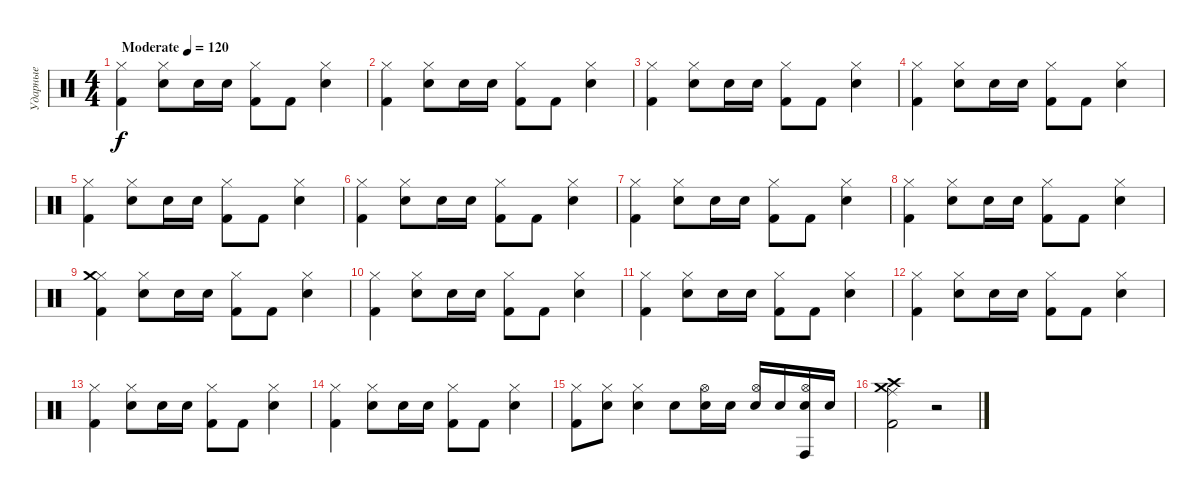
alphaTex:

\track ("Ударные" "Ударные") {instrument percussion}
\staff {score}
\articulation defaults
\ts (4 4)
\tempo (120 "Moderate")
\clef neutral
\ks c
("Kick (hit) 2" "Hi-Hat (closed)").4{dy f} ("Snare (hit) 2" "Hi-Hat (closed)").8 "Snare (hit) 2".16 "Snare (hit) 2".16 ("Kick (hit) 2" "Hi-Hat (closed)").8 "Kick (hit) 2".8 ("Snare (hit) 2" "Hi-Hat (closed)").4 |
("Kick (hit) 2" "Hi-Hat (closed)").4 ("Snare (hit) 2" "Hi-Hat (closed)").8 "Snare (hit) 2".16 "Snare (hit) 2".16 ("Kick (hit) 2" "Hi-Hat (closed)").8 "Kick (hit) 2".8 ("Snare (hit) 2" "Hi-Hat (closed)").4 |
("Kick (hit) 2" "Hi-Hat (closed)").4 ("Snare (hit) 2" "Hi-Hat (closed)").8 "Snare (hit) 2".16 "Snare (hit) 2".16 ("Kick (hit) 2" "Hi-Hat (closed)").8 "Kick (hit) 2".8 ("Snare (hit) 2" "Hi-Hat (closed)").4 |
("Kick (hit) 2" "Hi-Hat (closed)").4 ("Snare (hit) 2" "Hi-Hat (closed)").8 "Snare (hit) 2".16 "Snare (hit) 2".16 ("Kick (hit) 2" "Hi-Hat (closed)").8 "Kick (hit) 2".8 ("Snare (hit) 2" "Hi-Hat (closed)").4 |
("Kick (hit) 2" "Hi-Hat (closed)").4 ("Snare (hit) 2" "Hi-Hat (closed)").8 "Snare (hit) 2".16 "Snare (hit) 2".16 ("Kick (hit) 2" "Hi-Hat (closed)").8 "Kick (hit) 2".8 ("Snare (hit) 2" "Hi-Hat (closed)").4 |
("Kick (hit) 2" "Hi-Hat (closed)").4 ("Snare (hit) 2" "Hi-Hat (closed)").8 "Snare (hit) 2".16 "Snare (hit) 2".16 ("Kick (hit) 2" "Hi-Hat (closed)").8 "Kick (hit) 2".8 ("Snare (hit) 2" "Hi-Hat (closed)").4 |
("Kick (hit) 2" "Hi-Hat (closed)").4 ("Snare (hit) 2" "Hi-Hat (closed)").8 "Snare (hit) 2".16 "Snare (hit) 2".16 ("Kick (hit) 2" "Hi-Hat (closed)").8 "Kick (hit) 2".8 ("Snare (hit) 2" "Hi-Hat (closed)").4 |
("Kick (hit) 2" "Hi-Hat (closed)").4 ("Snare (hit) 2" "Hi-Hat (closed)").8 "Snare (hit) 2".16 "Snare (hit) 2".16 ("Kick (hit) 2" "Hi-Hat (closed)").8 "Kick (hit) 2".8 ("Snare (hit) 2" "Hi-Hat (closed)").4 |
("Kick (hit) 2" "Hi-Hat (closed)" "Crash medium (hit)").4 ("Snare (hit) 2" "Hi-Hat (closed)").8 "Snare (hit) 2".16 "Snare (hit) 2".16 ("Kick (hit) 2" "Hi-Hat (closed)").8 "Kick (hit) 2".8 ("Snare (hit) 2" "Hi-Hat (closed)").4 |
("Kick (hit) 2" "Hi-Hat (closed)").4 ("Snare (hit) 2" "Hi-Hat (closed)").8 "Snare (hit) 2".16 "Snare (hit) 2".16 ("Kick (hit) 2" "Hi-Hat (closed)").8 "Kick (hit) 2".8 ("Snare (hit) 2" "Hi-Hat (closed)").4 |
("Kick (hit) 2" "Hi-Hat (closed)").4 ("Snare (hit) 2" "Hi-Hat (closed)").8 "Snare (hit) 2".16 "Snare (hit) 2".16 ("Kick (hit) 2" "Hi-Hat (closed)").8 "Kick (hit) 2".8 ("Snare (hit) 2" "Hi-Hat (closed)").4 |
("Kick (hit) 2" "Hi-Hat (closed)").4 ("Snare (hit) 2" "Hi-Hat (closed)").8 "Snare (hit) 2".16 "Snare (hit) 2".16 ("Kick (hit) 2" "Hi-Hat (closed)").8 "Kick (hit) 2".8 ("Snare (hit) 2" "Hi-Hat (closed)").4 |
("Kick (hit) 2" "Hi-Hat (closed)").4 ("Snare (hit) 2" "Hi-Hat (closed)").8 "Snare (hit) 2".16 "Snare (hit) 2".16 ("Kick (hit) 2" "Hi-Hat (closed)").8 "Kick (hit) 2".8 ("Snare (hit) 2" "Hi-Hat (closed)").4 |
("Kick (hit) 2" "Hi-Hat (closed)").4 ("Snare (hit) 2" "Hi-Hat (closed)").8 "Snare (hit) 2".16 "Snare (hit) 2".16 ("Kick (hit) 2" "Hi-Hat (closed)").8 "Kick (hit) 2".8 ("Snare (hit) 2" "Hi-Hat (closed)").4 |
("Kick (hit) 2" "Hi-Hat (closed)").8 ("Snare (hit) 2" "Hi-Hat (closed)").8 ("Snare (hit) 2" "Hi-Hat (closed)").4 "Snare (hit) 2".8 ("Snare (hit) 2" "Hi-Hat (open)").16 "Snare (hit) 2".16 ("Snare (hit) 2" "Hi-Hat (open)").16 "Snare (hit) 2".16 ("Snare (hit) 2" "Conga high (hit)" "Hi-Hat (open)").16 "Snare (hit) 2".16 |
("Kick (hit) 2" "Crash medium (hit)" "Ride (middle)" "Crash high (hit)").2 r.2
